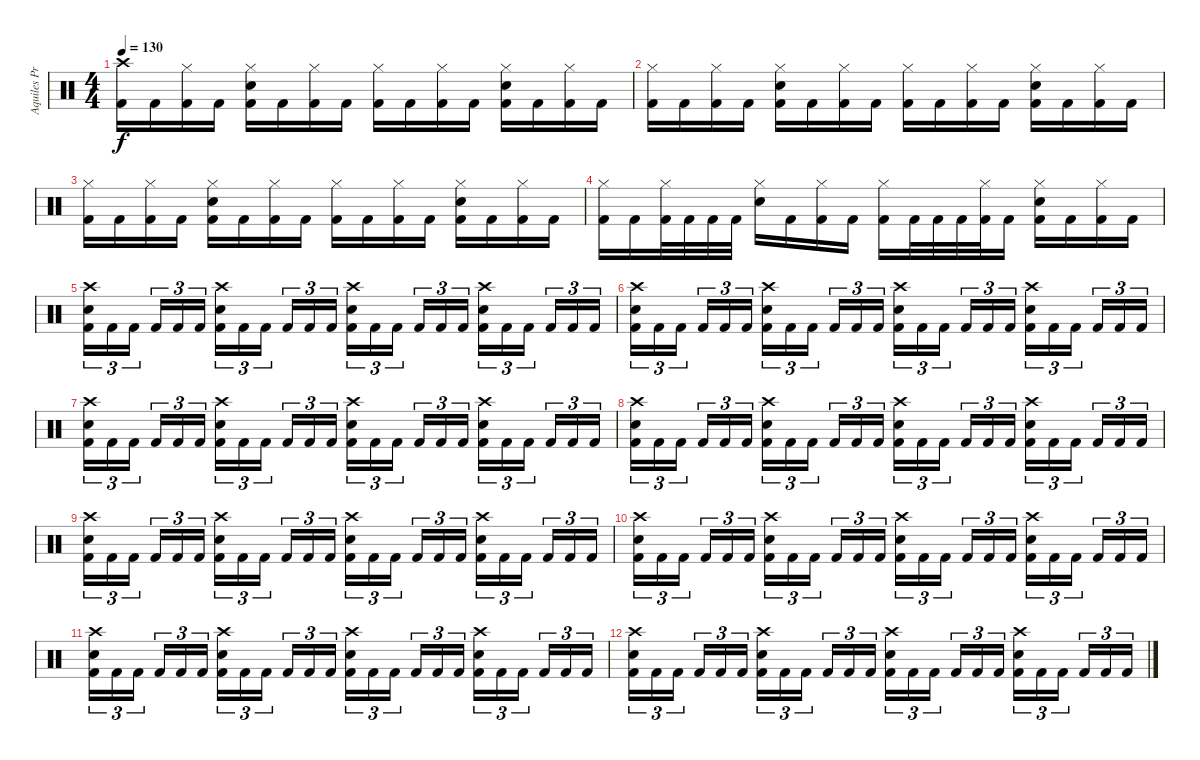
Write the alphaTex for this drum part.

\track ("Aquiles Priester" "Aquiles Pr") {instrument percussion}
\staff {score}
\articulation defaults
\ts (4 4)
\tempo 130
\clef neutral
\ks c
("Crash high (hit)" "Kick (hit) 2").16{dy f} "Kick (hit) 2".16 ("Hi-Hat (closed)" "Kick (hit) 2").16 "Kick (hit) 2".16 ("Hi-Hat (closed)" "Electric Snare (hit)" "Kick (hit) 2").16 "Kick (hit) 2".16 ("Hi-Hat (closed)" "Kick (hit) 2").16 "Kick (hit) 2".16 ("Hi-Hat (closed)" "Kick (hit) 2").16 "Kick (hit) 2".16 ("Hi-Hat (closed)" "Kick (hit) 2").16 "Kick (hit) 2".16 ("Hi-Hat (closed)" "Electric Snare (hit)" "Kick (hit) 2").16 "Kick (hit) 2".16 ("Hi-Hat (closed)" "Kick (hit) 2").16 "Kick (hit) 2".16 |
("Hi-Hat (closed)" "Kick (hit) 2").16 "Kick (hit) 2".16 ("Hi-Hat (closed)" "Kick (hit) 2").16 "Kick (hit) 2".16 ("Hi-Hat (closed)" "Electric Snare (hit)" "Kick (hit) 2").16 "Kick (hit) 2".16 ("Hi-Hat (closed)" "Kick (hit) 2").16 "Kick (hit) 2".16 ("Hi-Hat (closed)" "Kick (hit) 2").16 "Kick (hit) 2".16 ("Hi-Hat (closed)" "Kick (hit) 2").16 "Kick (hit) 2".16 ("Hi-Hat (closed)" "Electric Snare (hit)" "Kick (hit) 2").16 "Kick (hit) 2".16 ("Hi-Hat (closed)" "Kick (hit) 2").16 "Kick (hit) 2".16 |
("Hi-Hat (closed)" "Kick (hit) 2").16 "Kick (hit) 2".16 ("Hi-Hat (closed)" "Kick (hit) 2").16 "Kick (hit) 2".16 ("Hi-Hat (closed)" "Electric Snare (hit)" "Kick (hit) 2").16 "Kick (hit) 2".16 ("Hi-Hat (closed)" "Kick (hit) 2").16 "Kick (hit) 2".16 ("Hi-Hat (closed)" "Kick (hit) 2").16 "Kick (hit) 2".16 ("Hi-Hat (closed)" "Kick (hit) 2").16 "Kick (hit) 2".16 ("Hi-Hat (closed)" "Electric Snare (hit)" "Kick (hit) 2").16 "Kick (hit) 2".16 ("Hi-Hat (closed)" "Kick (hit) 2").16 "Kick (hit) 2".16 |
("Hi-Hat (closed)" "Kick (hit) 2").16 "Kick (hit) 2".16 ("Hi-Hat (closed)" "Kick (hit) 2").32 "Kick (hit) 2".32 "Kick (hit) 2".32 "Kick (hit) 2".32 ("Hi-Hat (closed)" "Electric Snare (hit)").16 "Kick (hit) 2".16 ("Hi-Hat (closed)" "Kick (hit) 2").16 "Kick (hit) 2".16 ("Hi-Hat (closed)" "Kick (hit) 2").16 "Kick (hit) 2".32 "Kick (hit) 2".32 "Kick (hit) 2".32 ("Hi-Hat (closed)" "Kick (hit) 2").32 "Kick (hit) 2".16 ("Hi-Hat (closed)" "Electric Snare (hit)" "Kick (hit) 2").16 "Kick (hit) 2".16 ("Hi-Hat (closed)" "Kick (hit) 2").16 "Kick (hit) 2".16 |
("Crash high (hit)" "Electric Snare (hit)" "Kick (hit) 2").16{tu (3 2) volume 8} "Kick (hit) 2".16{tu (3 2)} "Kick (hit) 2".16{tu (3 2) beam splitsecondary} "Kick (hit) 2".16{tu (3 2)} "Kick (hit) 2".16{tu (3 2)} "Kick (hit) 2".16{tu (3 2)} ("Crash high (hit)" "Electric Snare (hit)" "Kick (hit) 2").16{tu (3 2)} "Kick (hit) 2".16{tu (3 2)} "Kick (hit) 2".16{tu (3 2) beam splitsecondary} "Kick (hit) 2".16{tu (3 2)} "Kick (hit) 2".16{tu (3 2)} "Kick (hit) 2".16{tu (3 2)} ("Crash high (hit)" "Electric Snare (hit)" "Kick (hit) 2").16{tu (3 2)} "Kick (hit) 2".16{tu (3 2)} "Kick (hit) 2".16{tu (3 2) beam splitsecondary} "Kick (hit) 2".16{tu (3 2)} "Kick (hit) 2".16{tu (3 2)} "Kick (hit) 2".16{tu (3 2)} ("Crash high (hit)" "Electric Snare (hit)" "Kick (hit) 2").16{tu (3 2)} "Kick (hit) 2".16{tu (3 2)} "Kick (hit) 2".16{tu (3 2) beam splitsecondary} "Kick (hit) 2".16{tu (3 2)} "Kick (hit) 2".16{tu (3 2)} "Kick (hit) 2".16{tu (3 2)} |
("Crash high (hit)" "Electric Snare (hit)" "Kick (hit) 2").16{tu (3 2)} "Kick (hit) 2".16{tu (3 2)} "Kick (hit) 2".16{tu (3 2) beam splitsecondary} "Kick (hit) 2".16{tu (3 2)} "Kick (hit) 2".16{tu (3 2)} "Kick (hit) 2".16{tu (3 2)} ("Crash high (hit)" "Electric Snare (hit)" "Kick (hit) 2").16{tu (3 2)} "Kick (hit) 2".16{tu (3 2)} "Kick (hit) 2".16{tu (3 2) beam splitsecondary} "Kick (hit) 2".16{tu (3 2)} "Kick (hit) 2".16{tu (3 2)} "Kick (hit) 2".16{tu (3 2)} ("Crash high (hit)" "Electric Snare (hit)" "Kick (hit) 2").16{tu (3 2)} "Kick (hit) 2".16{tu (3 2)} "Kick (hit) 2".16{tu (3 2) beam splitsecondary} "Kick (hit) 2".16{tu (3 2)} "Kick (hit) 2".16{tu (3 2)} "Kick (hit) 2".16{tu (3 2)} ("Crash high (hit)" "Electric Snare (hit)" "Kick (hit) 2").16{tu (3 2)} "Kick (hit) 2".16{tu (3 2)} "Kick (hit) 2".16{tu (3 2) beam splitsecondary} "Kick (hit) 2".16{tu (3 2)} "Kick (hit) 2".16{tu (3 2)} "Kick (hit) 2".16{tu (3 2)} |
("Crash high (hit)" "Electric Snare (hit)" "Kick (hit) 2").16{tu (3 2)} "Kick (hit) 2".16{tu (3 2)} "Kick (hit) 2".16{tu (3 2) beam splitsecondary} "Kick (hit) 2".16{tu (3 2)} "Kick (hit) 2".16{tu (3 2)} "Kick (hit) 2".16{tu (3 2)} ("Crash high (hit)" "Electric Snare (hit)" "Kick (hit) 2").16{tu (3 2)} "Kick (hit) 2".16{tu (3 2)} "Kick (hit) 2".16{tu (3 2) beam splitsecondary} "Kick (hit) 2".16{tu (3 2)} "Kick (hit) 2".16{tu (3 2)} "Kick (hit) 2".16{tu (3 2)} ("Crash high (hit)" "Electric Snare (hit)" "Kick (hit) 2").16{tu (3 2)} "Kick (hit) 2".16{tu (3 2)} "Kick (hit) 2".16{tu (3 2) beam splitsecondary} "Kick (hit) 2".16{tu (3 2)} "Kick (hit) 2".16{tu (3 2)} "Kick (hit) 2".16{tu (3 2)} ("Crash high (hit)" "Electric Snare (hit)" "Kick (hit) 2").16{tu (3 2)} "Kick (hit) 2".16{tu (3 2)} "Kick (hit) 2".16{tu (3 2) beam splitsecondary} "Kick (hit) 2".16{tu (3 2)} "Kick (hit) 2".16{tu (3 2)} "Kick (hit) 2".16{tu (3 2)} |
("Crash high (hit)" "Electric Snare (hit)" "Kick (hit) 2").16{tu (3 2)} "Kick (hit) 2".16{tu (3 2)} "Kick (hit) 2".16{tu (3 2) beam splitsecondary} "Kick (hit) 2".16{tu (3 2)} "Kick (hit) 2".16{tu (3 2)} "Kick (hit) 2".16{tu (3 2)} ("Crash high (hit)" "Electric Snare (hit)" "Kick (hit) 2").16{tu (3 2)} "Kick (hit) 2".16{tu (3 2)} "Kick (hit) 2".16{tu (3 2) beam splitsecondary} "Kick (hit) 2".16{tu (3 2)} "Kick (hit) 2".16{tu (3 2)} "Kick (hit) 2".16{tu (3 2)} ("Crash high (hit)" "Electric Snare (hit)" "Kick (hit) 2").16{tu (3 2)} "Kick (hit) 2".16{tu (3 2)} "Kick (hit) 2".16{tu (3 2) beam splitsecondary} "Kick (hit) 2".16{tu (3 2)} "Kick (hit) 2".16{tu (3 2)} "Kick (hit) 2".16{tu (3 2)} ("Crash high (hit)" "Electric Snare (hit)" "Kick (hit) 2").16{tu (3 2)} "Kick (hit) 2".16{tu (3 2)} "Kick (hit) 2".16{tu (3 2) beam splitsecondary} "Kick (hit) 2".16{tu (3 2)} "Kick (hit) 2".16{tu (3 2)} "Kick (hit) 2".16{tu (3 2)} |
("Crash high (hit)" "Electric Snare (hit)" "Kick (hit) 2").16{tu (3 2)} "Kick (hit) 2".16{tu (3 2) volume 0} "Kick (hit) 2".16{tu (3 2) beam splitsecondary} "Kick (hit) 2".16{tu (3 2)} "Kick (hit) 2".16{tu (3 2)} "Kick (hit) 2".16{tu (3 2)} ("Crash high (hit)" "Electric Snare (hit)" "Kick (hit) 2").16{tu (3 2)} "Kick (hit) 2".16{tu (3 2)} "Kick (hit) 2".16{tu (3 2) beam splitsecondary} "Kick (hit) 2".16{tu (3 2)} "Kick (hit) 2".16{tu (3 2)} "Kick (hit) 2".16{tu (3 2)} ("Crash high (hit)" "Electric Snare (hit)" "Kick (hit) 2").16{tu (3 2)} "Kick (hit) 2".16{tu (3 2)} "Kick (hit) 2".16{tu (3 2) beam splitsecondary} "Kick (hit) 2".16{tu (3 2)} "Kick (hit) 2".16{tu (3 2)} "Kick (hit) 2".16{tu (3 2)} ("Crash high (hit)" "Electric Snare (hit)" "Kick (hit) 2").16{tu (3 2)} "Kick (hit) 2".16{tu (3 2)} "Kick (hit) 2".16{tu (3 2) beam splitsecondary} "Kick (hit) 2".16{tu (3 2)} "Kick (hit) 2".16{tu (3 2)} "Kick (hit) 2".16{tu (3 2)} |
("Crash high (hit)" "Electric Snare (hit)" "Kick (hit) 2").16{tu (3 2)} "Kick (hit) 2".16{tu (3 2)} "Kick (hit) 2".16{tu (3 2) beam splitsecondary} "Kick (hit) 2".16{tu (3 2)} "Kick (hit) 2".16{tu (3 2)} "Kick (hit) 2".16{tu (3 2)} ("Crash high (hit)" "Electric Snare (hit)" "Kick (hit) 2").16{tu (3 2)} "Kick (hit) 2".16{tu (3 2)} "Kick (hit) 2".16{tu (3 2) beam splitsecondary} "Kick (hit) 2".16{tu (3 2)} "Kick (hit) 2".16{tu (3 2)} "Kick (hit) 2".16{tu (3 2)} ("Crash high (hit)" "Electric Snare (hit)" "Kick (hit) 2").16{tu (3 2)} "Kick (hit) 2".16{tu (3 2)} "Kick (hit) 2".16{tu (3 2) beam splitsecondary} "Kick (hit) 2".16{tu (3 2)} "Kick (hit) 2".16{tu (3 2)} "Kick (hit) 2".16{tu (3 2)} ("Crash high (hit)" "Electric Snare (hit)" "Kick (hit) 2").16{tu (3 2)} "Kick (hit) 2".16{tu (3 2)} "Kick (hit) 2".16{tu (3 2) beam splitsecondary} "Kick (hit) 2".16{tu (3 2)} "Kick (hit) 2".16{tu (3 2)} "Kick (hit) 2".16{tu (3 2)} |
("Crash high (hit)" "Electric Snare (hit)" "Kick (hit) 2").16{tu (3 2)} "Kick (hit) 2".16{tu (3 2)} "Kick (hit) 2".16{tu (3 2) beam splitsecondary} "Kick (hit) 2".16{tu (3 2)} "Kick (hit) 2".16{tu (3 2)} "Kick (hit) 2".16{tu (3 2)} ("Crash high (hit)" "Electric Snare (hit)" "Kick (hit) 2").16{tu (3 2)} "Kick (hit) 2".16{tu (3 2)} "Kick (hit) 2".16{tu (3 2) beam splitsecondary} "Kick (hit) 2".16{tu (3 2)} "Kick (hit) 2".16{tu (3 2)} "Kick (hit) 2".16{tu (3 2)} ("Crash high (hit)" "Electric Snare (hit)" "Kick (hit) 2").16{tu (3 2)} "Kick (hit) 2".16{tu (3 2)} "Kick (hit) 2".16{tu (3 2) beam splitsecondary} "Kick (hit) 2".16{tu (3 2)} "Kick (hit) 2".16{tu (3 2)} "Kick (hit) 2".16{tu (3 2)} ("Crash high (hit)" "Electric Snare (hit)" "Kick (hit) 2").16{tu (3 2)} "Kick (hit) 2".16{tu (3 2)} "Kick (hit) 2".16{tu (3 2) beam splitsecondary} "Kick (hit) 2".16{tu (3 2)} "Kick (hit) 2".16{tu (3 2)} "Kick (hit) 2".16{tu (3 2)} |
("Crash high (hit)" "Electric Snare (hit)" "Kick (hit) 2").16{tu (3 2)} "Kick (hit) 2".16{tu (3 2)} "Kick (hit) 2".16{tu (3 2) beam splitsecondary} "Kick (hit) 2".16{tu (3 2)} "Kick (hit) 2".16{tu (3 2)} "Kick (hit) 2".16{tu (3 2)} ("Crash high (hit)" "Electric Snare (hit)" "Kick (hit) 2").16{tu (3 2)} "Kick (hit) 2".16{tu (3 2)} "Kick (hit) 2".16{tu (3 2) beam splitsecondary} "Kick (hit) 2".16{tu (3 2)} "Kick (hit) 2".16{tu (3 2)} "Kick (hit) 2".16{tu (3 2)} ("Crash high (hit)" "Electric Snare (hit)" "Kick (hit) 2").16{tu (3 2)} "Kick (hit) 2".16{tu (3 2)} "Kick (hit) 2".16{tu (3 2) beam splitsecondary} "Kick (hit) 2".16{tu (3 2)} "Kick (hit) 2".16{tu (3 2)} "Kick (hit) 2".16{tu (3 2)} ("Crash high (hit)" "Electric Snare (hit)" "Kick (hit) 2").16{tu (3 2)} "Kick (hit) 2".16{tu (3 2)} "Kick (hit) 2".16{tu (3 2) beam splitsecondary} "Kick (hit) 2".16{tu (3 2)} "Kick (hit) 2".16{tu (3 2)} "Kick (hit) 2".16{tu (3 2)}
